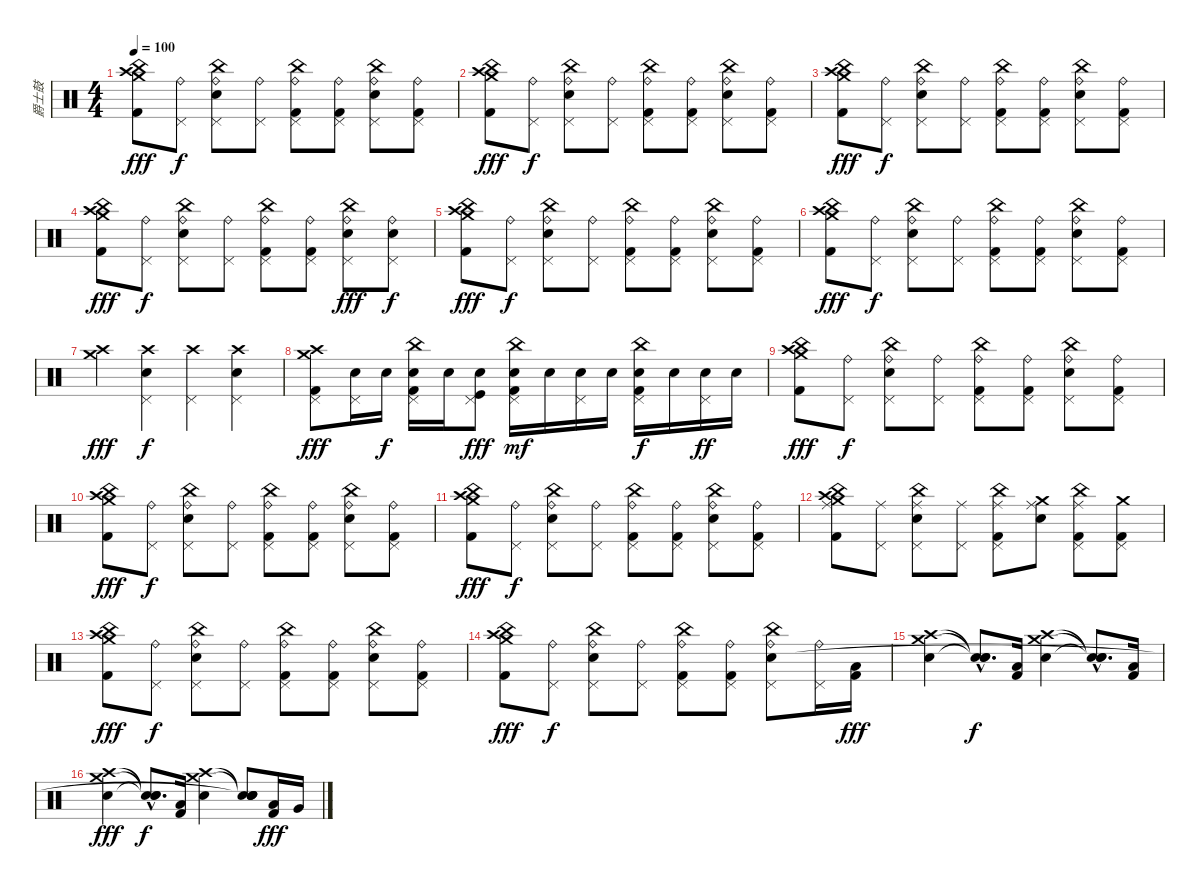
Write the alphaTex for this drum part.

\track ("爵士鼓" "爵士鼓") {instrument percussion}
\staff {score}
\articulation defaults
\ts (4 4)
\tempo 100
\clef neutral
\ks c
("Crash high (hit)" "Crash medium (hit)" "China (hit)" "Kick (hit) 2").8{dy fff} ("Ride (bell)" "Pedal Hi-Hat (hit)").8{dy f} ("Ride (bell)" "Pedal Hi-Hat (hit)" "China (hit)" "Snare (hit) 2").8 ("Ride (bell)" "Pedal Hi-Hat (hit)").8 ("Ride (bell)" "Pedal Hi-Hat (hit)" "China (hit)" "Kick (hit) 2").8 ("Ride (bell)" "Pedal Hi-Hat (hit)" "Kick (hit) 2").8 ("Ride (bell)" "Pedal Hi-Hat (hit)" "China (hit)" "Snare (hit) 2").8 ("Ride (bell)" "Pedal Hi-Hat (hit)" "Kick (hit) 2").8 |
("Crash high (hit)" "Crash medium (hit)" "China (hit)" "Kick (hit) 2").8{dy fff} ("Ride (bell)" "Pedal Hi-Hat (hit)").8{dy f} ("Ride (bell)" "Pedal Hi-Hat (hit)" "China (hit)" "Snare (hit) 2").8 ("Ride (bell)" "Pedal Hi-Hat (hit)").8 ("Ride (bell)" "Pedal Hi-Hat (hit)" "China (hit)" "Kick (hit) 2").8 ("Ride (bell)" "Pedal Hi-Hat (hit)" "Kick (hit) 2").8 ("Ride (bell)" "Pedal Hi-Hat (hit)" "China (hit)" "Snare (hit) 2").8 ("Ride (bell)" "Pedal Hi-Hat (hit)" "Kick (hit) 2").8 |
("Crash high (hit)" "Crash medium (hit)" "China (hit)" "Kick (hit) 2").8{dy fff} ("Ride (bell)" "Pedal Hi-Hat (hit)").8{dy f} ("Ride (bell)" "Pedal Hi-Hat (hit)" "China (hit)" "Snare (hit) 2").8 ("Ride (bell)" "Pedal Hi-Hat (hit)").8 ("Ride (bell)" "Pedal Hi-Hat (hit)" "China (hit)" "Kick (hit) 2").8 ("Ride (bell)" "Pedal Hi-Hat (hit)" "Kick (hit) 2").8 ("Ride (bell)" "Pedal Hi-Hat (hit)" "China (hit)" "Snare (hit) 2").8 ("Ride (bell)" "Pedal Hi-Hat (hit)" "Kick (hit) 2").8 |
("Crash high (hit)" "Crash medium (hit)" "China (hit)" "Kick (hit) 2").8{dy fff} ("Ride (bell)" "Pedal Hi-Hat (hit)").8{dy f} ("Ride (bell)" "Pedal Hi-Hat (hit)" "China (hit)" "Snare (hit) 2").8 ("Ride (bell)" "Pedal Hi-Hat (hit)").8 ("Ride (bell)" "Pedal Hi-Hat (hit)" "China (hit)" "Kick (hit) 2").8 ("Ride (bell)" "Pedal Hi-Hat (hit)" "Kick (hit) 2").8 ("Ride (bell)" "Pedal Hi-Hat (hit)" "China (hit)" "Snare (hit) 2").8{dy fff} ("Ride (bell)" "Pedal Hi-Hat (hit)" "Electric Snare (hit)").8{dy f} |
("Crash high (hit)" "Crash medium (hit)" "China (hit)" "Kick (hit) 2").8{dy fff} ("Ride (bell)" "Pedal Hi-Hat (hit)").8{dy f} ("Ride (bell)" "Pedal Hi-Hat (hit)" "China (hit)" "Snare (hit) 2").8 ("Ride (bell)" "Pedal Hi-Hat (hit)").8 ("Ride (bell)" "Pedal Hi-Hat (hit)" "China (hit)" "Kick (hit) 2").8 ("Ride (bell)" "Pedal Hi-Hat (hit)" "Kick (hit) 2").8 ("Ride (bell)" "Pedal Hi-Hat (hit)" "China (hit)" "Snare (hit) 2").8 ("Ride (bell)" "Pedal Hi-Hat (hit)" "Kick (hit) 2").8 |
("Crash high (hit)" "Crash medium (hit)" "China (hit)" "Kick (hit) 2").8{dy fff} ("Ride (bell)" "Pedal Hi-Hat (hit)").8{dy f} ("Ride (bell)" "Pedal Hi-Hat (hit)" "China (hit)" "Snare (hit) 2").8 ("Ride (bell)" "Pedal Hi-Hat (hit)").8 ("Ride (bell)" "Pedal Hi-Hat (hit)" "China (hit)" "Kick (hit) 2").8 ("Ride (bell)" "Pedal Hi-Hat (hit)" "Kick (hit) 2").8 ("Ride (bell)" "Pedal Hi-Hat (hit)" "China (hit)" "Snare (hit) 2").8 ("Ride (bell)" "Pedal Hi-Hat (hit)" "Kick (hit) 2").8 |
("Crash high (hit)" "Crash medium (hit)").4{dy fff} ("Crash high (hit)" "Pedal Hi-Hat (hit)" "Snare (hit) 2").4{dy f} ("Crash high (hit)" "Pedal Hi-Hat (hit)").4 ("Crash high (hit)" "Pedal Hi-Hat (hit)" "Snare (hit) 2").4 |
("Pedal Hi-Hat (hit)" "Crash medium (hit)" "Crash high (hit)" "Kick (hit) 2").8{dy fff} ("Pedal Hi-Hat (hit)" "Electric Snare (hit)").16 "Electric Snare (hit)".16{dy f} ("Pedal Hi-Hat (hit)" "China (hit)" "Electric Snare (hit)" "Kick (hit) 2").16 "Electric Snare (hit)".16 ("Pedal Hi-Hat (hit)" "Electric Snare (hit)" "Kick (hit)").8{dy fff} ("Pedal Hi-Hat (hit)" "China (hit)" "Electric Snare (hit)" "Kick (hit) 2").16{dy mf} "Electric Snare (hit)".16 ("Pedal Hi-Hat (hit)" "Electric Snare (hit)").16 "Electric Snare (hit)".16 ("Pedal Hi-Hat (hit)" "China (hit)" "Electric Snare (hit)" "Kick (hit) 2").16{dy f} "Electric Snare (hit)".16 ("Pedal Hi-Hat (hit)" "Electric Snare (hit)").16{dy ff} "Electric Snare (hit)".16 |
("Crash high (hit)" "Crash medium (hit)" "China (hit)" "Kick (hit) 2").8{dy fff} ("Ride (bell)" "Pedal Hi-Hat (hit)").8{dy f} ("Ride (bell)" "Pedal Hi-Hat (hit)" "China (hit)" "Snare (hit) 2").8 ("Ride (bell)" "Pedal Hi-Hat (hit)").8 ("Ride (bell)" "Pedal Hi-Hat (hit)" "China (hit)" "Kick (hit) 2").8 ("Ride (bell)" "Pedal Hi-Hat (hit)" "Kick (hit) 2").8 ("Ride (bell)" "Pedal Hi-Hat (hit)" "China (hit)" "Snare (hit) 2").8 ("Ride (bell)" "Pedal Hi-Hat (hit)" "Kick (hit) 2").8 |
("Crash high (hit)" "Crash medium (hit)" "China (hit)" "Kick (hit) 2").8{dy fff} ("Ride (bell)" "Pedal Hi-Hat (hit)").8{dy f} ("Ride (bell)" "Pedal Hi-Hat (hit)" "China (hit)" "Snare (hit) 2").8 ("Ride (bell)" "Pedal Hi-Hat (hit)").8 ("Ride (bell)" "Pedal Hi-Hat (hit)" "China (hit)" "Kick (hit) 2").8 ("Ride (bell)" "Pedal Hi-Hat (hit)" "Kick (hit) 2").8 ("Ride (bell)" "Pedal Hi-Hat (hit)" "China (hit)" "Snare (hit) 2").8 ("Ride (bell)" "Pedal Hi-Hat (hit)" "Kick (hit) 2").8 |
("Crash high (hit)" "Crash medium (hit)" "China (hit)" "Kick (hit) 2").8{dy fff} ("Ride (bell)" "Pedal Hi-Hat (hit)").8{dy f} ("Ride (bell)" "Pedal Hi-Hat (hit)" "China (hit)" "Snare (hit) 2").8 ("Ride (bell)" "Pedal Hi-Hat (hit)").8 ("Ride (bell)" "Pedal Hi-Hat (hit)" "China (hit)" "Kick (hit) 2").8 ("Ride (bell)" "Pedal Hi-Hat (hit)" "Kick (hit) 2").8 ("Ride (bell)" "Pedal Hi-Hat (hit)" "China (hit)" "Snare (hit) 2").8 ("Ride (bell)" "Pedal Hi-Hat (hit)" "Kick (hit) 2").8 |
("Crash medium (hit)" "Ride (middle)" "Crash high (hit)" "Kick (hit) 2" "China (hit)").8 ("Pedal Hi-Hat (hit)" "Ride (middle)").8 ("Pedal Hi-Hat (hit)" "Ride (middle)" "Snare (hit) 2" "China (hit)").8 ("Pedal Hi-Hat (hit)" "Ride (middle)").8 ("Pedal Hi-Hat (hit)" "Ride (middle)" "China (hit)" "Kick (hit) 2").8 ("Crash medium (hit)" "Ride (middle)" "Snare (hit) 2").8 ("Pedal Hi-Hat (hit)" "Ride (middle)" "China (hit)" "Kick (hit) 2").8 ("Pedal Hi-Hat (hit)" "Crash medium (hit)" "Kick (hit) 2").8 |
("Crash high (hit)" "Crash medium (hit)" "China (hit)" "Kick (hit) 2").8{dy fff} ("Ride (bell)" "Pedal Hi-Hat (hit)").8{dy f} ("Ride (bell)" "Pedal Hi-Hat (hit)" "China (hit)" "Snare (hit) 2").8 ("Ride (bell)" "Pedal Hi-Hat (hit)").8 ("Ride (bell)" "Pedal Hi-Hat (hit)" "China (hit)" "Kick (hit) 2").8 ("Ride (bell)" "Pedal Hi-Hat (hit)" "Kick (hit) 2").8 ("Ride (bell)" "Pedal Hi-Hat (hit)" "China (hit)" "Snare (hit) 2").8 ("Ride (bell)" "Pedal Hi-Hat (hit)" "Kick (hit) 2").8 |
("Crash high (hit)" "Crash medium (hit)" "China (hit)" "Kick (hit) 2").8{dy fff} ("Ride (bell)" "Pedal Hi-Hat (hit)").8{dy f} ("Ride (bell)" "Pedal Hi-Hat (hit)" "China (hit)" "Snare (hit) 2").8 ("Ride (bell)" "Pedal Hi-Hat (hit)").8 ("Ride (bell)" "Pedal Hi-Hat (hit)" "China (hit)" "Kick (hit) 2").8 ("Ride (bell)" "Pedal Hi-Hat (hit)" "Kick (hit) 2").8 ("Ride (bell)" "Pedal Hi-Hat (hit)" "China (hit)" "Snare (hit) 2").8 ("Ride (bell)" "Pedal Hi-Hat (hit)").16 ("Low Tom (hit)" "Kick (hit) 2").16{dy fff} |
("Crash high (hit)" "Crash medium (hit)" "Snare (hit) 2").4 ("Snare (hit)"{hac t} "Snare (hit)"{hac t} "Snare (hit)"{hac t}).8{d dy f} ("Low Tom (hit)" "Kick (hit) 2").16 ("Crash high (hit)" "Crash medium (hit)" "Snare (hit) 2").4 ("Snare (hit)"{hac t} "Snare (hit)"{hac t} "Snare (hit)"{hac t}).8{d} ("Low Tom (hit)" "Kick (hit) 2").16 |
("Crash high (hit)" "Crash medium (hit)" "Snare (hit) 2").4{dy fff} ("Snare (hit)"{hac t} "Snare (hit)"{hac t} "Snare (hit)"{hac t}).8{d dy f} ("Low Tom (hit)" "Kick (hit) 2").16 ("Crash high (hit)" "Crash medium (hit)" "Snare (hit) 2").4 ("Snare (hit)"{t} "Snare (hit)"{t} "Electric Snare (hit)" "Snare (hit)"{t}).8 ("Low Tom (hit)" "Kick (hit) 2").16{dy fff} "Very Low Tom (hit)".16
